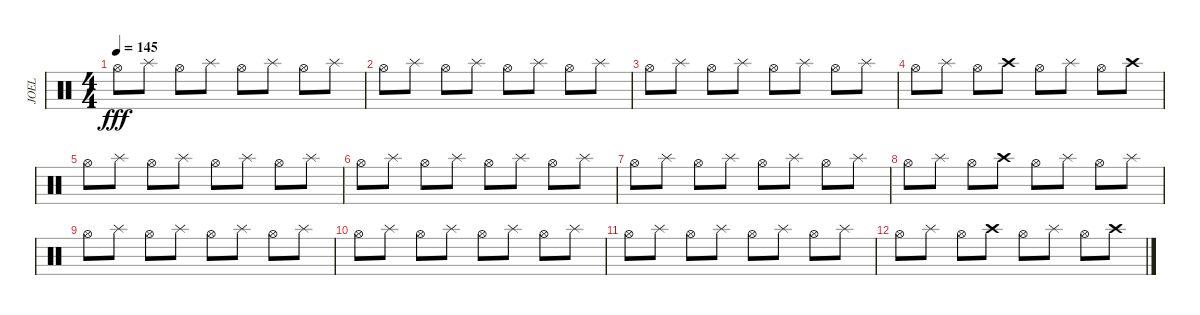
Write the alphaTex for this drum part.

\track ("JOEL" "JOEL") {instrument percussion}
\staff {score}
\articulation defaults
\ts (4 4)
\tempo 145
\clef neutral
\ks c "Hi-Hat (open)".8{dy fff} "Splash (hit)".8 "Hi-Hat (open)".8 "Splash (hit)".8 "Hi-Hat (open)".8 "Splash (hit)".8 "Hi-Hat (open)".8 "Splash (hit)".8
|
"Hi-Hat (open)".8 "Splash (hit)".8 "Hi-Hat (open)".8 "Splash (hit)".8 "Hi-Hat (open)".8 "Splash (hit)".8 "Hi-Hat (open)".8 "Splash (hit)".8 |
"Hi-Hat (open)".8 "Splash (hit)".8 "Hi-Hat (open)".8 "Splash (hit)".8 "Hi-Hat (open)".8 "Splash (hit)".8 "Hi-Hat (open)".8 "Splash (hit)".8 |
"Hi-Hat (open)".8 "Splash (hit)".8 "Hi-Hat (open)".8 "Crash high (hit)".8 "Hi-Hat (open)".8 "Splash (hit)".8 "Hi-Hat (open)".8 "Crash high (hit)".8 |
"Hi-Hat (open)".8 "Splash (hit)".8 "Hi-Hat (open)".8 "Splash (hit)".8 "Hi-Hat (open)".8 "Splash (hit)".8 "Hi-Hat (open)".8 "Splash (hit)".8 |
"Hi-Hat (open)".8 "Splash (hit)".8 "Hi-Hat (open)".8 "Splash (hit)".8 "Hi-Hat (open)".8 "Splash (hit)".8 "Hi-Hat (open)".8 "Splash (hit)".8 |
"Hi-Hat (open)".8 "Splash (hit)".8 "Hi-Hat (open)".8 "Splash (hit)".8 "Hi-Hat (open)".8 "Splash (hit)".8 "Hi-Hat (open)".8 "Splash (hit)".8 |
"Hi-Hat (open)".8 "Splash (hit)".8 "Hi-Hat (open)".8 "Crash high (hit)".8 "Hi-Hat (open)".8 "Splash (hit)".8 "Hi-Hat (open)".8 "Splash (hit)".8 |
"Hi-Hat (open)".8 "Splash (hit)".8 "Hi-Hat (open)".8 "Splash (hit)".8 "Hi-Hat (open)".8 "Splash (hit)".8 "Hi-Hat (open)".8 "Splash (hit)".8 |
"Hi-Hat (open)".8 "Splash (hit)".8 "Hi-Hat (open)".8 "Splash (hit)".8 "Hi-Hat (open)".8 "Splash (hit)".8 "Hi-Hat (open)".8 "Splash (hit)".8 |
"Hi-Hat (open)".8 "Splash (hit)".8 "Hi-Hat (open)".8 "Splash (hit)".8 "Hi-Hat (open)".8 "Splash (hit)".8 "Hi-Hat (open)".8 "Splash (hit)".8 |
"Hi-Hat (open)".8 "Splash (hit)".8 "Hi-Hat (open)".8 "Crash high (hit)".8 "Hi-Hat (open)".8 "Splash (hit)".8 "Hi-Hat (open)".8 "Crash high (hit)".8
